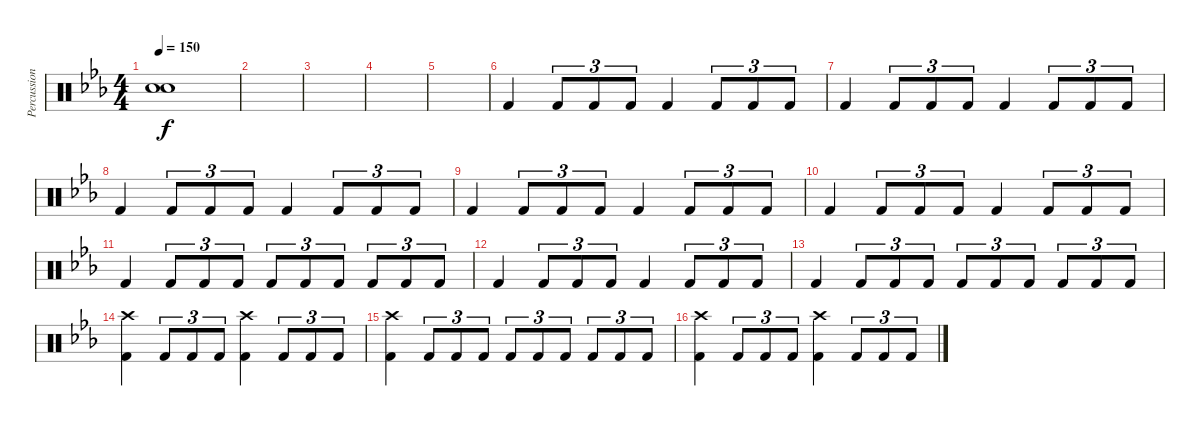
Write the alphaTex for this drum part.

\track ("Percussion" "Percussion") {instrument percussion}
\staff {score}
\articulation defaults
\ts (4 4)
\tempo 150
\clef neutral
\ks cminor
("Snare (hit)"{t} "Snare (hit)"{t}).1{dy f} |
|
|
|
|
"Kick (hit) 2".4 "Kick (hit) 2".8{tu (3 2)} "Kick (hit) 2".8{tu (3 2)} "Kick (hit) 2".8{tu (3 2)} "Kick (hit) 2".4 "Kick (hit) 2".8{tu (3 2)} "Kick (hit) 2".8{tu (3 2)} "Kick (hit) 2".8{tu (3 2)} |
"Kick (hit) 2".4 "Kick (hit) 2".8{tu (3 2)} "Kick (hit) 2".8{tu (3 2)} "Kick (hit) 2".8{tu (3 2)} "Kick (hit) 2".4 "Kick (hit) 2".8{tu (3 2)} "Kick (hit) 2".8{tu (3 2)} "Kick (hit) 2".8{tu (3 2)} |
"Kick (hit) 2".4 "Kick (hit) 2".8{tu (3 2)} "Kick (hit) 2".8{tu (3 2)} "Kick (hit) 2".8{tu (3 2)} "Kick (hit) 2".4 "Kick (hit) 2".8{tu (3 2)} "Kick (hit) 2".8{tu (3 2)} "Kick (hit) 2".8{tu (3 2)} |
"Kick (hit) 2".4 "Kick (hit) 2".8{tu (3 2)} "Kick (hit) 2".8{tu (3 2)} "Kick (hit) 2".8{tu (3 2)} "Kick (hit) 2".4 "Kick (hit) 2".8{tu (3 2)} "Kick (hit) 2".8{tu (3 2)} "Kick (hit) 2".8{tu (3 2)} |
"Kick (hit) 2".4 "Kick (hit) 2".8{tu (3 2)} "Kick (hit) 2".8{tu (3 2)} "Kick (hit) 2".8{tu (3 2)} "Kick (hit) 2".4 "Kick (hit) 2".8{tu (3 2)} "Kick (hit) 2".8{tu (3 2)} "Kick (hit) 2".8{tu (3 2)} |
"Kick (hit) 2".4 "Kick (hit) 2".8{tu (3 2)} "Kick (hit) 2".8{tu (3 2)} "Kick (hit) 2".8{tu (3 2)} "Kick (hit) 2".8{tu (3 2)} "Kick (hit) 2".8{tu (3 2)} "Kick (hit) 2".8{tu (3 2)} "Kick (hit) 2".8{tu (3 2)} "Kick (hit) 2".8{tu (3 2)} "Kick (hit) 2".8{tu (3 2)} |
"Kick (hit) 2".4 "Kick (hit) 2".8{tu (3 2)} "Kick (hit) 2".8{tu (3 2)} "Kick (hit) 2".8{tu (3 2)} "Kick (hit) 2".4 "Kick (hit) 2".8{tu (3 2)} "Kick (hit) 2".8{tu (3 2)} "Kick (hit) 2".8{tu (3 2)} |
"Kick (hit) 2".4 "Kick (hit) 2".8{tu (3 2)} "Kick (hit) 2".8{tu (3 2)} "Kick (hit) 2".8{tu (3 2)} "Kick (hit) 2".8{tu (3 2)} "Kick (hit) 2".8{tu (3 2)} "Kick (hit) 2".8{tu (3 2)} "Kick (hit) 2".8{tu (3 2)} "Kick (hit) 2".8{tu (3 2)} "Kick (hit) 2".8{tu (3 2)} |
("Crash high (hit)" "Kick (hit) 2").4 "Kick (hit) 2".8{tu (3 2)} "Kick (hit) 2".8{tu (3 2)} "Kick (hit) 2".8{tu (3 2)} ("Crash high (hit)" "Kick (hit) 2").4 "Kick (hit) 2".8{tu (3 2)} "Kick (hit) 2".8{tu (3 2)} "Kick (hit) 2".8{tu (3 2)} |
("Crash high (hit)" "Kick (hit) 2").4 "Kick (hit) 2".8{tu (3 2)} "Kick (hit) 2".8{tu (3 2)} "Kick (hit) 2".8{tu (3 2)} "Kick (hit) 2".8{tu (3 2)} "Kick (hit) 2".8{tu (3 2)} "Kick (hit) 2".8{tu (3 2)} "Kick (hit) 2".8{tu (3 2)} "Kick (hit) 2".8{tu (3 2)} "Kick (hit) 2".8{tu (3 2)} |
("Crash high (hit)" "Kick (hit) 2").4 "Kick (hit) 2".8{tu (3 2)} "Kick (hit) 2".8{tu (3 2)} "Kick (hit) 2".8{tu (3 2)} ("Crash high (hit)" "Kick (hit) 2").4 "Kick (hit) 2".8{tu (3 2)} "Kick (hit) 2".8{tu (3 2)} "Kick (hit) 2".8{tu (3 2)}
